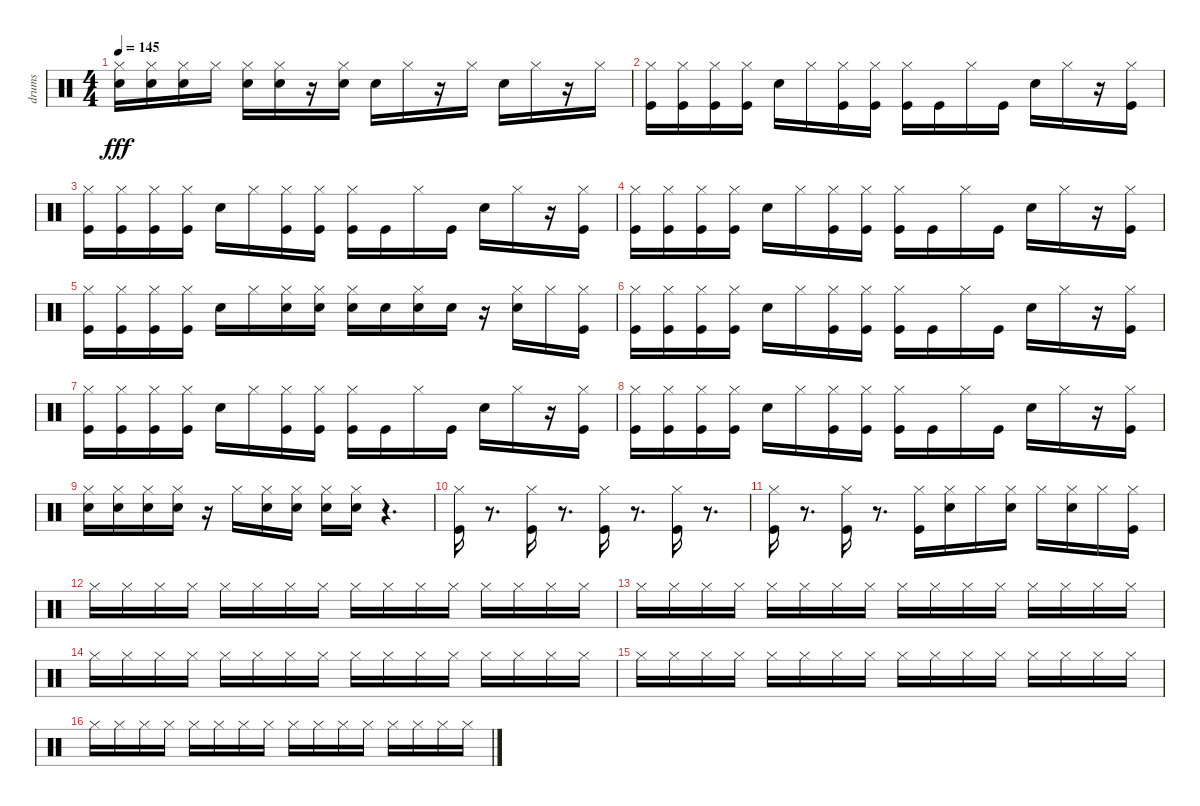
\track ("drums" "drums") {instrument percussion}
\staff {score}
\articulation defaults
\ts (4 4)
\tempo 145
\clef neutral
\ks c
("Snare (hit) 2" "Hi-Hat (closed)").16{dy fff} ("Snare (hit) 2" "Hi-Hat (closed)").16 ("Snare (hit) 2" "Hi-Hat (closed)").16 "Hi-Hat (closed)".16 ("Snare (hit) 2" "Hi-Hat (closed)").16 ("Snare (hit) 2" "Hi-Hat (closed)").16 r.16 ("Snare (hit) 2" "Hi-Hat (closed)").16 "Snare (hit) 2".16 "Hi-Hat (closed)".16 r.16 "Hi-Hat (closed)".16 "Snare (hit) 2".16 "Hi-Hat (closed)".16 r.16 "Hi-Hat (closed)".16 |
("Kick (hit)" "Hi-Hat (closed)").16 ("Kick (hit)" "Hi-Hat (closed)").16 ("Kick (hit)" "Hi-Hat (closed)").16 ("Kick (hit)" "Hi-Hat (closed)").16 "Snare (hit) 2".16 "Hi-Hat (closed)".16 ("Kick (hit)" "Hi-Hat (closed)").16 ("Kick (hit)" "Hi-Hat (closed)").16 ("Kick (hit)" "Hi-Hat (closed)").16 "Kick (hit)".16 "Hi-Hat (closed)".16 "Kick (hit)".16 "Snare (hit) 2".16 "Hi-Hat (closed)".16 r.16 ("Kick (hit)" "Hi-Hat (closed)").16 |
("Kick (hit)" "Hi-Hat (closed)").16 ("Kick (hit)" "Hi-Hat (closed)").16 ("Kick (hit)" "Hi-Hat (closed)").16 ("Kick (hit)" "Hi-Hat (closed)").16 "Snare (hit) 2".16 "Hi-Hat (closed)".16 ("Kick (hit)" "Hi-Hat (closed)").16 ("Kick (hit)" "Hi-Hat (closed)").16 ("Kick (hit)" "Hi-Hat (closed)").16 "Kick (hit)".16 "Hi-Hat (closed)".16 "Kick (hit)".16 "Snare (hit) 2".16 "Hi-Hat (closed)".16 r.16 ("Kick (hit)" "Hi-Hat (closed)").16 |
("Kick (hit)" "Hi-Hat (closed)").16 ("Kick (hit)" "Hi-Hat (closed)").16 ("Kick (hit)" "Hi-Hat (closed)").16 ("Kick (hit)" "Hi-Hat (closed)").16 "Snare (hit) 2".16 "Hi-Hat (closed)".16 ("Kick (hit)" "Hi-Hat (closed)").16 ("Kick (hit)" "Hi-Hat (closed)").16 ("Kick (hit)" "Hi-Hat (closed)").16 "Kick (hit)".16 "Hi-Hat (closed)".16 "Kick (hit)".16 "Snare (hit) 2".16 "Hi-Hat (closed)".16 r.16 ("Kick (hit)" "Hi-Hat (closed)").16 |
("Kick (hit)" "Hi-Hat (closed)").16 ("Kick (hit)" "Hi-Hat (closed)").16 ("Kick (hit)" "Hi-Hat (closed)").16 ("Kick (hit)" "Hi-Hat (closed)").16 "Snare (hit) 2".16 "Hi-Hat (closed)".16 ("Snare (hit) 2" "Hi-Hat (closed)").16 ("Snare (hit) 2" "Hi-Hat (closed)").16 ("Snare (hit) 2" "Hi-Hat (closed)").16 "Snare (hit) 2".16 ("Snare (hit) 2" "Hi-Hat (closed)").16 "Snare (hit) 2".16 r.16 ("Snare (hit) 2" "Hi-Hat (closed)").16 "Hi-Hat (closed)".16 ("Kick (hit)" "Hi-Hat (closed)").16 |
("Kick (hit)" "Hi-Hat (closed)").16 ("Kick (hit)" "Hi-Hat (closed)").16 ("Kick (hit)" "Hi-Hat (closed)").16 ("Kick (hit)" "Hi-Hat (closed)").16 "Snare (hit) 2".16 "Hi-Hat (closed)".16 ("Kick (hit)" "Hi-Hat (closed)").16 ("Kick (hit)" "Hi-Hat (closed)").16 ("Kick (hit)" "Hi-Hat (closed)").16 "Kick (hit)".16 "Hi-Hat (closed)".16 "Kick (hit)".16 "Snare (hit) 2".16 "Hi-Hat (closed)".16 r.16 ("Kick (hit)" "Hi-Hat (closed)").16 |
("Kick (hit)" "Hi-Hat (closed)").16 ("Kick (hit)" "Hi-Hat (closed)").16 ("Kick (hit)" "Hi-Hat (closed)").16 ("Kick (hit)" "Hi-Hat (closed)").16 "Snare (hit) 2".16 "Hi-Hat (closed)".16 ("Kick (hit)" "Hi-Hat (closed)").16 ("Kick (hit)" "Hi-Hat (closed)").16 ("Kick (hit)" "Hi-Hat (closed)").16 "Kick (hit)".16 "Hi-Hat (closed)".16 "Kick (hit)".16 "Snare (hit) 2".16 "Hi-Hat (closed)".16 r.16 ("Kick (hit)" "Hi-Hat (closed)").16 |
("Kick (hit)" "Hi-Hat (closed)").16 ("Kick (hit)" "Hi-Hat (closed)").16 ("Kick (hit)" "Hi-Hat (closed)").16 ("Kick (hit)" "Hi-Hat (closed)").16 "Snare (hit) 2".16 "Hi-Hat (closed)".16 ("Kick (hit)" "Hi-Hat (closed)").16 ("Kick (hit)" "Hi-Hat (closed)").16 ("Kick (hit)" "Hi-Hat (closed)").16 "Kick (hit)".16 "Hi-Hat (closed)".16 "Kick (hit)".16 "Snare (hit) 2".16 "Hi-Hat (closed)".16 r.16 ("Kick (hit)" "Hi-Hat (closed)").16 |
("Snare (hit) 2" "Hi-Hat (closed)").16 ("Snare (hit) 2" "Hi-Hat (closed)").16 ("Snare (hit) 2" "Hi-Hat (closed)").16 ("Snare (hit) 2" "Hi-Hat (closed)").16 r.16 "Hi-Hat (closed)".16 ("Snare (hit) 2" "Hi-Hat (closed)").16 ("Snare (hit) 2" "Hi-Hat (closed)").16 ("Snare (hit) 2" "Hi-Hat (closed)").16 ("Snare (hit) 2" "Hi-Hat (closed)").16 r.4{d} |
("Kick (hit)" "Hi-Hat (closed)").16 r.8{d} ("Kick (hit)" "Hi-Hat (closed)").16 r.8{d} ("Kick (hit)" "Hi-Hat (closed)").16 r.8{d} ("Kick (hit)" "Hi-Hat (closed)").16 r.8{d} |
("Kick (hit)" "Hi-Hat (closed)").16 r.8{d} ("Kick (hit)" "Hi-Hat (closed)").16 r.8{d} ("Kick (hit)" "Hi-Hat (closed)").16 ("Snare (hit) 2" "Hi-Hat (closed)").16 "Hi-Hat (closed)".16 ("Snare (hit) 2" "Hi-Hat (closed)").16 "Hi-Hat (closed)".16 ("Snare (hit) 2" "Hi-Hat (closed)").16 "Hi-Hat (closed)".16 ("Kick (hit)" "Hi-Hat (closed)").16 |
"Hi-Hat (closed)".16 "Hi-Hat (closed)".16 "Hi-Hat (closed)".16 "Hi-Hat (closed)".16 "Hi-Hat (closed)".16 "Hi-Hat (closed)".16 "Hi-Hat (closed)".16 "Hi-Hat (closed)".16 "Hi-Hat (closed)".16 "Hi-Hat (closed)".16 "Hi-Hat (closed)".16 "Hi-Hat (closed)".16 "Hi-Hat (closed)".16 "Hi-Hat (closed)".16 "Hi-Hat (closed)".16 "Hi-Hat (closed)".16 |
"Hi-Hat (closed)".16 "Hi-Hat (closed)".16 "Hi-Hat (closed)".16 "Hi-Hat (closed)".16 "Hi-Hat (closed)".16 "Hi-Hat (closed)".16 "Hi-Hat (closed)".16 "Hi-Hat (closed)".16 "Hi-Hat (closed)".16 "Hi-Hat (closed)".16 "Hi-Hat (closed)".16 "Hi-Hat (closed)".16 "Hi-Hat (closed)".16 "Hi-Hat (closed)".16 "Hi-Hat (closed)".16 "Hi-Hat (closed)".16 |
"Hi-Hat (closed)".16 "Hi-Hat (closed)".16 "Hi-Hat (closed)".16 "Hi-Hat (closed)".16 "Hi-Hat (closed)".16 "Hi-Hat (closed)".16 "Hi-Hat (closed)".16 "Hi-Hat (closed)".16 "Hi-Hat (closed)".16 "Hi-Hat (closed)".16 "Hi-Hat (closed)".16 "Hi-Hat (closed)".16 "Hi-Hat (closed)".16 "Hi-Hat (closed)".16 "Hi-Hat (closed)".16 "Hi-Hat (closed)".16 |
"Hi-Hat (closed)".16 "Hi-Hat (closed)".16 "Hi-Hat (closed)".16 "Hi-Hat (closed)".16 "Hi-Hat (closed)".16 "Hi-Hat (closed)".16 "Hi-Hat (closed)".16 "Hi-Hat (closed)".16 "Hi-Hat (closed)".16 "Hi-Hat (closed)".16 "Hi-Hat (closed)".16 "Hi-Hat (closed)".16 "Hi-Hat (closed)".16 "Hi-Hat (closed)".16 "Hi-Hat (closed)".16 "Hi-Hat (closed)".16 |
"Hi-Hat (closed)".16 "Hi-Hat (closed)".16 "Hi-Hat (closed)".16 "Hi-Hat (closed)".16 "Hi-Hat (closed)".16 "Hi-Hat (closed)".16 "Hi-Hat (closed)".16 "Hi-Hat (closed)".16 "Hi-Hat (closed)".16 "Hi-Hat (closed)".16 "Hi-Hat (closed)".16 "Hi-Hat (closed)".16 "Hi-Hat (closed)".16 "Hi-Hat (closed)".16 "Hi-Hat (closed)".16 "Hi-Hat (closed)".16
